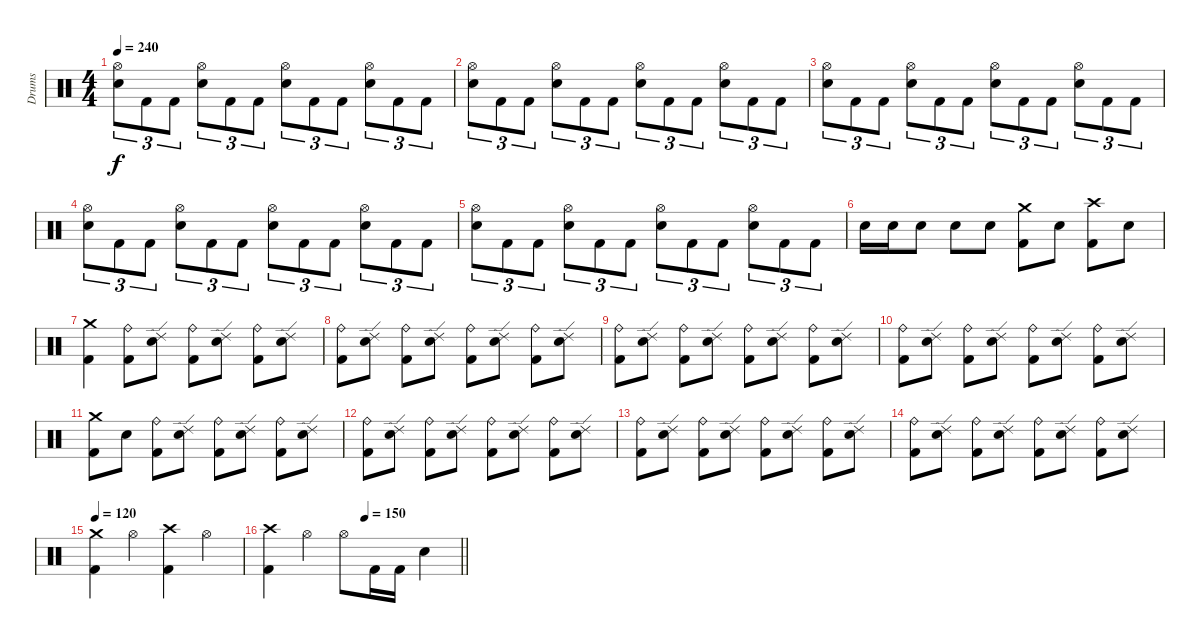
\track ("Drums" "Drums") {instrument percussion}
\staff {score}
\articulation defaults
\ts (4 4)
\tempo 240
\clef neutral
\ks c
("Hi-Hat (open)" "Snare (hit) 2").8{tu (3 2) dy f} "Kick (hit) 2".8{tu (3 2)} "Kick (hit) 2".8{tu (3 2)} ("Hi-Hat (open)" "Snare (hit) 2").8{tu (3 2)} "Kick (hit) 2".8{tu (3 2)} "Kick (hit) 2".8{tu (3 2)} ("Hi-Hat (open)" "Snare (hit) 2").8{tu (3 2)} "Kick (hit) 2".8{tu (3 2)} "Kick (hit) 2".8{tu (3 2)} ("Hi-Hat (open)" "Snare (hit) 2").8{tu (3 2)} "Kick (hit) 2".8{tu (3 2)} "Kick (hit) 2".8{tu (3 2)} |
("Hi-Hat (open)" "Snare (hit) 2").8{tu (3 2)} "Kick (hit) 2".8{tu (3 2)} "Kick (hit) 2".8{tu (3 2)} ("Hi-Hat (open)" "Snare (hit) 2").8{tu (3 2)} "Kick (hit) 2".8{tu (3 2)} "Kick (hit) 2".8{tu (3 2)} ("Hi-Hat (open)" "Snare (hit) 2").8{tu (3 2)} "Kick (hit) 2".8{tu (3 2)} "Kick (hit) 2".8{tu (3 2)} ("Hi-Hat (open)" "Snare (hit) 2").8{tu (3 2)} "Kick (hit) 2".8{tu (3 2)} "Kick (hit) 2".8{tu (3 2)} |
("Hi-Hat (open)" "Snare (hit) 2").8{tu (3 2)} "Kick (hit) 2".8{tu (3 2)} "Kick (hit) 2".8{tu (3 2)} ("Hi-Hat (open)" "Snare (hit) 2").8{tu (3 2)} "Kick (hit) 2".8{tu (3 2)} "Kick (hit) 2".8{tu (3 2)} ("Hi-Hat (open)" "Snare (hit) 2").8{tu (3 2)} "Kick (hit) 2".8{tu (3 2)} "Kick (hit) 2".8{tu (3 2)} ("Hi-Hat (open)" "Snare (hit) 2").8{tu (3 2)} "Kick (hit) 2".8{tu (3 2)} "Kick (hit) 2".8{tu (3 2)} |
("Hi-Hat (open)" "Snare (hit) 2").8{tu (3 2)} "Kick (hit) 2".8{tu (3 2)} "Kick (hit) 2".8{tu (3 2)} ("Hi-Hat (open)" "Snare (hit) 2").8{tu (3 2)} "Kick (hit) 2".8{tu (3 2)} "Kick (hit) 2".8{tu (3 2)} ("Hi-Hat (open)" "Snare (hit) 2").8{tu (3 2)} "Kick (hit) 2".8{tu (3 2)} "Kick (hit) 2".8{tu (3 2)} ("Hi-Hat (open)" "Snare (hit) 2").8{tu (3 2)} "Kick (hit) 2".8{tu (3 2)} "Kick (hit) 2".8{tu (3 2)} |
("Hi-Hat (open)" "Snare (hit) 2").8{tu (3 2)} "Kick (hit) 2".8{tu (3 2)} "Kick (hit) 2".8{tu (3 2)} ("Hi-Hat (open)" "Snare (hit) 2").8{tu (3 2)} "Kick (hit) 2".8{tu (3 2)} "Kick (hit) 2".8{tu (3 2)} ("Hi-Hat (open)" "Snare (hit) 2").8{tu (3 2)} "Kick (hit) 2".8{tu (3 2)} "Kick (hit) 2".8{tu (3 2)} ("Hi-Hat (open)" "Snare (hit) 2").8{tu (3 2)} "Kick (hit) 2".8{tu (3 2)} "Kick (hit) 2".8{tu (3 2)} |
"Snare (hit) 2".16 "Snare (hit) 2".16 "Snare (hit) 2".8 "Snare (hit) 2".8 "Snare (hit) 2".8 ("Crash medium (hit)" "Kick (hit) 2").8 "Snare (hit) 2".8 ("Crash high (hit)" "Kick (hit) 2").8 "Snare (hit) 2".8 |
("Crash medium (hit)" "Kick (hit) 2").4 ("Ride (bell)" "Kick (hit) 2").8 ("Ride (edge) 2" "Snare (hit) 2").8 ("Ride (bell)" "Kick (hit) 2").8 ("Ride (edge) 2" "Snare (hit) 2").8 ("Ride (bell)" "Kick (hit) 2").8 ("Ride (edge) 2" "Snare (hit) 2").8 |
("Ride (bell)" "Kick (hit) 2").8 ("Ride (edge) 2" "Snare (hit) 2").8 ("Ride (bell)" "Kick (hit) 2").8 ("Ride (edge) 2" "Snare (hit) 2").8 ("Ride (bell)" "Kick (hit) 2").8 ("Ride (edge) 2" "Snare (hit) 2").8 ("Ride (bell)" "Kick (hit) 2").8 ("Ride (edge) 2" "Snare (hit) 2").8 |
("Ride (bell)" "Kick (hit) 2").8 ("Ride (edge) 2" "Snare (hit) 2").8 ("Ride (bell)" "Kick (hit) 2").8 ("Ride (edge) 2" "Snare (hit) 2").8 ("Ride (bell)" "Kick (hit) 2").8 ("Ride (edge) 2" "Snare (hit) 2").8 ("Ride (bell)" "Kick (hit) 2").8 ("Ride (edge) 2" "Snare (hit) 2").8 |
("Ride (bell)" "Kick (hit) 2").8 ("Ride (edge) 2" "Snare (hit) 2").8 ("Ride (bell)" "Kick (hit) 2").8 ("Ride (edge) 2" "Snare (hit) 2").8 ("Ride (bell)" "Kick (hit) 2").8 ("Ride (edge) 2" "Snare (hit) 2").8 ("Ride (bell)" "Kick (hit) 2").8 ("Ride (edge) 2" "Snare (hit) 2").8 |
("Crash medium (hit)" "Kick (hit) 2").8 "Snare (hit) 2".8 ("Ride (bell)" "Kick (hit) 2").8 ("Ride (edge) 2" "Snare (hit) 2").8 ("Ride (bell)" "Kick (hit) 2").8 ("Ride (edge) 2" "Snare (hit) 2").8 ("Ride (bell)" "Kick (hit) 2").8 ("Ride (edge) 2" "Snare (hit) 2").8 |
("Ride (bell)" "Kick (hit) 2").8 ("Ride (edge) 2" "Snare (hit) 2").8 ("Ride (bell)" "Kick (hit) 2").8 ("Ride (edge) 2" "Snare (hit) 2").8 ("Ride (bell)" "Kick (hit) 2").8 ("Ride (edge) 2" "Snare (hit) 2").8 ("Ride (bell)" "Kick (hit) 2").8 ("Ride (edge) 2" "Snare (hit) 2").8 |
("Ride (bell)" "Kick (hit) 2").8 ("Ride (edge) 2" "Snare (hit) 2").8 ("Ride (bell)" "Kick (hit) 2").8 ("Ride (edge) 2" "Snare (hit) 2").8 ("Ride (bell)" "Kick (hit) 2").8 ("Ride (edge) 2" "Snare (hit) 2").8 ("Ride (bell)" "Kick (hit) 2").8 ("Ride (edge) 2" "Snare (hit) 2").8 |
("Ride (bell)" "Kick (hit) 2").8 ("Ride (edge) 2" "Snare (hit) 2").8 ("Ride (bell)" "Kick (hit) 2").8 ("Ride (edge) 2" "Snare (hit) 2").8 ("Ride (bell)" "Kick (hit) 2").8 ("Ride (edge) 2" "Snare (hit) 2").8 ("Ride (bell)" "Kick (hit) 2").8 ("Ride (edge) 2" "Snare (hit) 2").8 |
\tempo 120
("Crash medium (hit)" "Kick (hit) 2").4 "Hi-Hat (open)".4 ("Crash high (hit)" "Kick (hit) 2").4 "Hi-Hat (open)".4 |
\tempo (150 0.5)
\barLineRight lightlight
("Crash high (hit)" "Kick (hit) 2").4 "Hi-Hat (open)".4 "Hi-Hat (open)".8 "Kick (hit) 2".16 "Kick (hit) 2".16 "Snare (hit) 2".4
